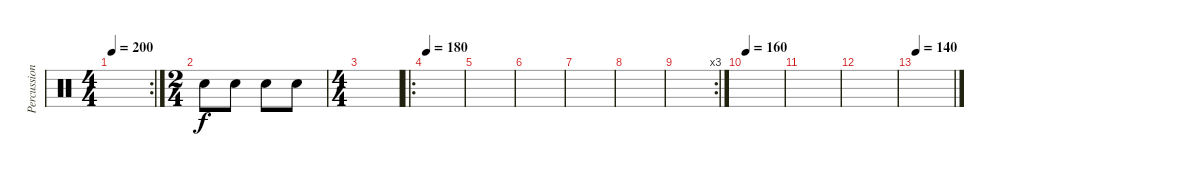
\track ("Percussions" "Percussion") {instrument percussion}
\staff {score}
\articulation defaults
\rc 2
\ts (4 4)
\tempo 200
\clef neutral
\ks c
|
\ts (2 4)
"Electric Snare (hit)".8 "Electric Snare (hit)".8 "Electric Snare (hit)".8 "Electric Snare (hit)".8 |
\ts (4 4)
|
\ro
\tempo 180
|
|
|
|
|
\rc 3
|
\tempo 160
|
|
|
\tempo 140
